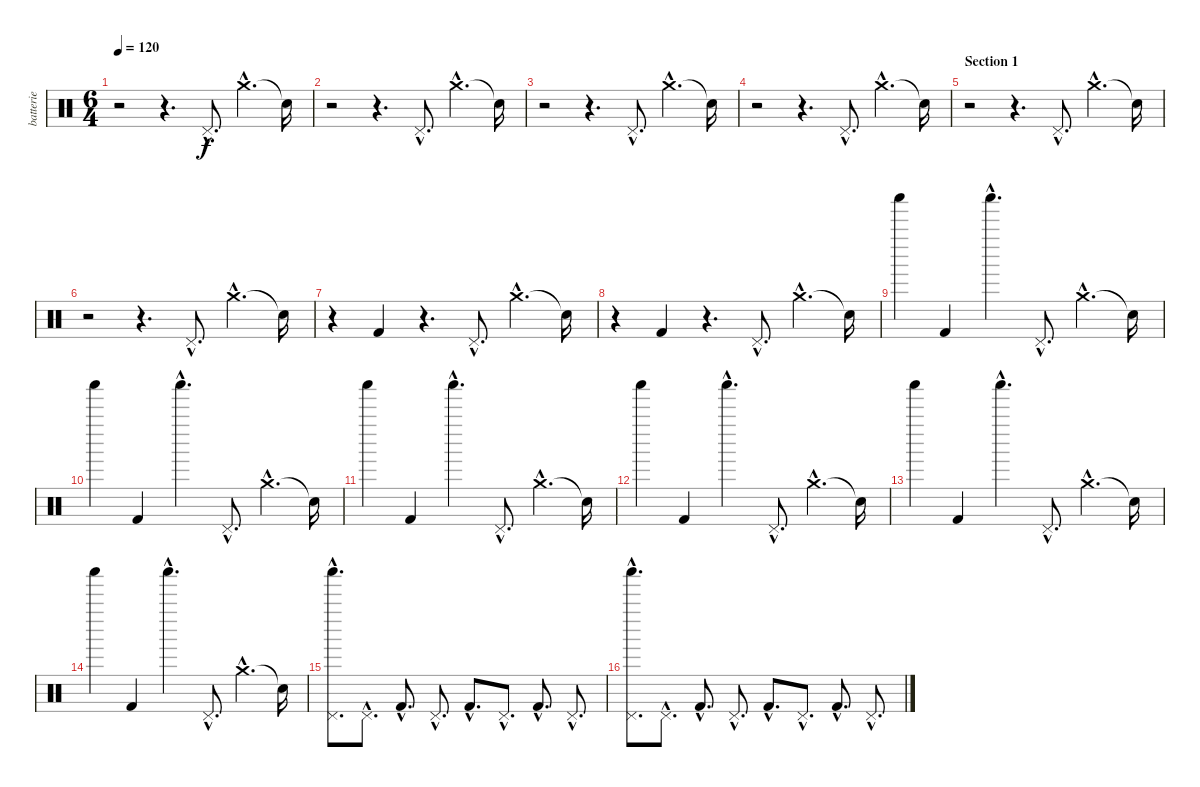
\track ("batterie" "batterie") {instrument percussion}
\staff {score}
\articulation defaults
\ts (6 4)
\tempo 120
\clef neutral
\ks c
r.2{dy f} r.4{d} "Pedal Hi-Hat (hit)"{hac}.8{d} "Crash medium (hit)"{hac}.4{d} "Snare (hit)"{t}.16 |
r.2 r.4{d} "Pedal Hi-Hat (hit)"{hac}.8{d} "Crash medium (hit)"{hac}.4{d} "Snare (hit)"{t}.16 |
r.2 r.4{d} "Pedal Hi-Hat (hit)"{hac}.8{d} "Crash medium (hit)"{hac}.4{d} "Snare (hit)"{t}.16 |
r.2 r.4{d} "Pedal Hi-Hat (hit)"{hac}.8{d} "Crash medium (hit)"{hac}.4{d} "Snare (hit)"{t}.16 |
\section ("" "Section 1")
r.2 r.4{d} "Pedal Hi-Hat (hit)"{hac}.8{d} "Crash medium (hit)"{hac}.4{d} "Snare (hit)"{t}.16 |
r.2 r.4{d} "Pedal Hi-Hat (hit)"{hac}.8{d} "Crash medium (hit)"{hac}.4{d} "Snare (hit)"{t}.16 |
r.4 "Kick (hit) 2".4 r.4{d} "Pedal Hi-Hat (hit)"{hac}.8{d} "Crash medium (hit)"{hac}.4{d} "Snare (hit)"{t}.16 |
r.4 "Kick (hit) 2".4 r.4{d} "Pedal Hi-Hat (hit)"{hac}.8{d} "Crash medium (hit)"{hac}.4{d} "Snare (hit)"{t}.16 |
"Shaker (hit)".4 "Kick (hit) 2".4 "Shaker (hit)"{hac}.4{d} "Pedal Hi-Hat (hit)"{hac}.8{d} "Crash medium (hit)"{hac}.4{d} "Snare (hit)"{t}.16 |
"Shaker (hit)".4 "Kick (hit) 2".4 "Shaker (hit)"{hac}.4{d} "Pedal Hi-Hat (hit)"{hac}.8{d} "Crash medium (hit)"{hac}.4{d} "Snare (hit)"{t}.16 |
"Shaker (hit)".4 "Kick (hit) 2".4 "Shaker (hit)"{hac}.4{d} "Pedal Hi-Hat (hit)"{hac}.8{d} "Crash medium (hit)"{hac}.4{d} "Snare (hit)"{t}.16 |
"Shaker (hit)".4 "Kick (hit) 2".4 "Shaker (hit)"{hac}.4{d} "Pedal Hi-Hat (hit)"{hac}.8{d} "Crash medium (hit)"{hac}.4{d} "Snare (hit)"{t}.16 |
"Shaker (hit)".4 "Kick (hit) 2".4 "Shaker (hit)"{hac}.4{d} "Pedal Hi-Hat (hit)"{hac}.8{d} "Crash medium (hit)"{hac}.4{d} "Snare (hit)"{t}.16 |
"Shaker (hit)".4 "Kick (hit) 2".4 "Shaker (hit)"{hac}.4{d} "Pedal Hi-Hat (hit)"{hac}.8{d} "Crash medium (hit)"{hac}.4{d} "Snare (hit)"{t}.16 |
("Pedal Hi-Hat (hit)"{hac} "Shaker (hit)"{hac}).8{d} "Pedal Hi-Hat (hit)"{hac}.8{d} "Kick (hit) 2"{hac}.8{d} "Pedal Hi-Hat (hit)"{hac}.8{d} "Kick (hit) 2"{hac}.8{d} "Pedal Hi-Hat (hit)"{hac}.8{d} "Kick (hit) 2"{hac}.8{d} "Pedal Hi-Hat (hit)"{hac}.8{d} |
("Pedal Hi-Hat (hit)"{hac} "Shaker (hit)"{hac}).8{d} "Pedal Hi-Hat (hit)"{hac}.8{d} "Kick (hit) 2"{hac}.8{d} "Pedal Hi-Hat (hit)"{hac}.8{d} "Kick (hit) 2"{hac}.8{d} "Pedal Hi-Hat (hit)"{hac}.8{d} "Kick (hit) 2"{hac}.8{d} "Pedal Hi-Hat (hit)"{hac}.8{d}
